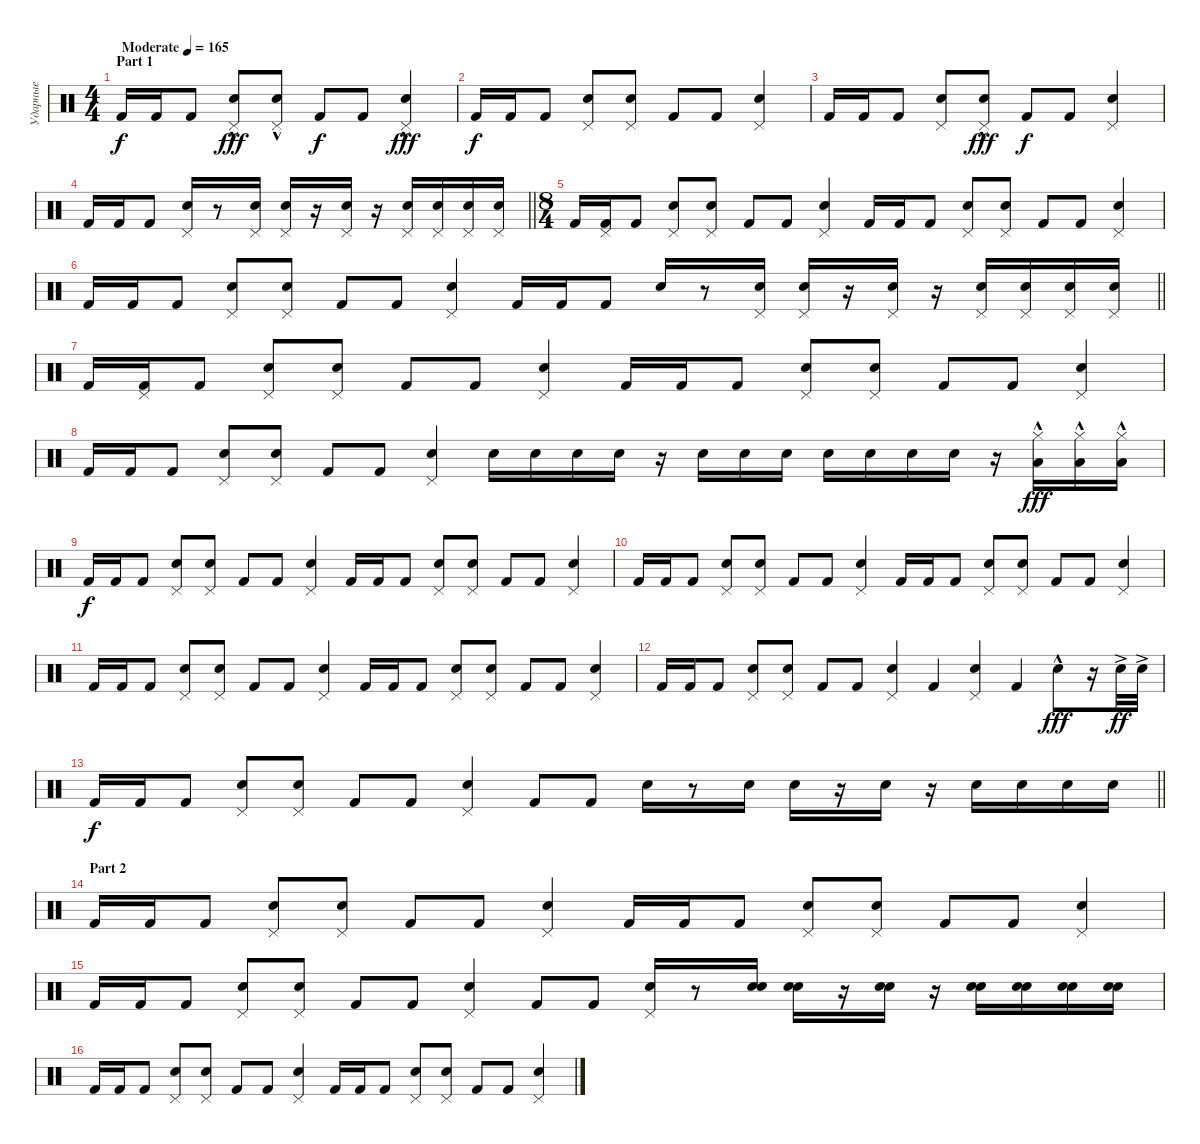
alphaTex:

\track ("Ударные" "Ударные") {instrument percussion}
\staff {score}
\articulation defaults
\ts (4 4)
\section ("" "Part 1")
\tempo (165 "Moderate")
\clef neutral
\ks c "Kick (hit) 2".16{dy f} "Kick (hit) 2".16 "Kick (hit) 2".8
("Snare (hit) 2" "Pedal Hi-Hat (hit)"{hac}).8{dy fff} ("Snare (hit) 2" "Pedal Hi-Hat (hit)"{hac}).8 "Kick (hit) 2".8{dy f} "Kick (hit) 2".8 ("Snare (hit) 2" "Pedal Hi-Hat (hit)"{hac}).4{dy fff} |
"Kick (hit) 2".16{dy f} "Kick (hit) 2".16 "Kick (hit) 2".8 ("Snare (hit) 2" "Pedal Hi-Hat (hit)").8 ("Snare (hit) 2" "Pedal Hi-Hat (hit)").8 "Kick (hit) 2".8 "Kick (hit) 2".8 ("Snare (hit) 2" "Pedal Hi-Hat (hit)").4 |
"Kick (hit) 2".16 "Kick (hit) 2".16 "Kick (hit) 2".8 ("Snare (hit) 2" "Pedal Hi-Hat (hit)").8 ("Snare (hit) 2" "Pedal Hi-Hat (hit)"{hac}).8{dy fff} "Kick (hit) 2".8{dy f} "Kick (hit) 2".8 ("Snare (hit) 2" "Pedal Hi-Hat (hit)").4 |
\barLineRight lightlight "Kick (hit) 2".16 "Kick (hit) 2".16 "Kick (hit) 2".8
("Snare (hit) 2" "Pedal Hi-Hat (hit)").16 r.8 ("Snare (hit) 2" "Pedal Hi-Hat (hit)").16 ("Snare (hit) 2" "Pedal Hi-Hat (hit)").16 r.16 ("Snare (hit) 2" "Pedal Hi-Hat (hit)").16 r.16 ("Snare (hit) 2" "Pedal Hi-Hat (hit)").16 ("Snare (hit) 2" "Pedal Hi-Hat (hit)").16 ("Snare (hit) 2" "Pedal Hi-Hat (hit)").16 ("Snare (hit) 2" "Pedal Hi-Hat (hit)").16 |
\ts (8 4)
"Kick (hit) 2".16 ("Kick (hit) 2" "Pedal Hi-Hat (hit)").16 "Kick (hit) 2".8 ("Snare (hit) 2" "Pedal Hi-Hat (hit)").8 ("Snare (hit) 2" "Pedal Hi-Hat (hit)").8 "Kick (hit) 2".8 "Kick (hit) 2".8 ("Snare (hit) 2" "Pedal Hi-Hat (hit)").4 "Kick (hit) 2".16 "Kick (hit) 2".16 "Kick (hit) 2".8 ("Snare (hit) 2" "Pedal Hi-Hat (hit)").8 ("Snare (hit) 2" "Pedal Hi-Hat (hit)").8 "Kick (hit) 2".8 "Kick (hit) 2".8 ("Snare (hit) 2" "Pedal Hi-Hat (hit)").4 |
\barLineRight lightlight "Kick (hit) 2".16 "Kick (hit) 2".16 "Kick (hit) 2".8
("Snare (hit) 2" "Pedal Hi-Hat (hit)").8 ("Snare (hit) 2" "Pedal Hi-Hat (hit)").8 "Kick (hit) 2".8 "Kick (hit) 2".8 ("Snare (hit) 2" "Pedal Hi-Hat (hit)").4 "Kick (hit) 2".16 "Kick (hit) 2".16 "Kick (hit) 2".8 "Snare (hit) 2".16 r.8 ("Snare (hit) 2" "Pedal Hi-Hat (hit)").16 ("Snare (hit) 2" "Pedal Hi-Hat (hit)").16 r.16 ("Snare (hit) 2" "Pedal Hi-Hat (hit)").16 r.16 ("Snare (hit) 2" "Pedal Hi-Hat (hit)").16 ("Snare (hit) 2" "Pedal Hi-Hat (hit)").16 ("Snare (hit) 2" "Pedal Hi-Hat (hit)").16 ("Snare (hit) 2" "Pedal Hi-Hat (hit)").16 |
"Kick (hit) 2".16 ("Kick (hit) 2" "Pedal Hi-Hat (hit)").16 "Kick (hit) 2".8 ("Snare (hit) 2" "Pedal Hi-Hat (hit)").8 ("Snare (hit) 2" "Pedal Hi-Hat (hit)").8 "Kick (hit) 2".8 "Kick (hit) 2".8 ("Snare (hit) 2" "Pedal Hi-Hat (hit)").4 "Kick (hit) 2".16 "Kick (hit) 2".16 "Kick (hit) 2".8 ("Snare (hit) 2" "Pedal Hi-Hat (hit)").8 ("Snare (hit) 2" "Pedal Hi-Hat (hit)").8 "Kick (hit) 2".8 "Kick (hit) 2".8 ("Snare (hit) 2" "Pedal Hi-Hat (hit)").4 |
"Kick (hit) 2".16 "Kick (hit) 2".16 "Kick (hit) 2".8 ("Snare (hit) 2" "Pedal Hi-Hat (hit)").8 ("Snare (hit) 2" "Pedal Hi-Hat (hit)").8 "Kick (hit) 2".8 "Kick (hit) 2".8 ("Snare (hit) 2" "Pedal Hi-Hat (hit)").4 "Snare (hit) 2".16 "Snare (hit) 2".16 "Snare (hit) 2".16 "Snare (hit) 2".16 r.16 "Snare (hit) 2".16 "Snare (hit) 2".16 "Snare (hit) 2".16 "Snare (hit) 2".16 "Snare (hit) 2".16 "Snare (hit) 2".16 "Snare (hit) 2".16 r.16 ("Low Tom (hit)"{hac} "Hi-Hat (closed)"{hac}).16{dy fff} ("Low Tom (hit)"{hac} "Hi-Hat (closed)"{hac}).16 ("Low Tom (hit)"{hac} "Hi-Hat (closed)"{hac}).16 |
"Kick (hit) 2".16{dy f} "Kick (hit) 2".16 "Kick (hit) 2".8 ("Snare (hit) 2" "Pedal Hi-Hat (hit)").8 ("Snare (hit) 2" "Pedal Hi-Hat (hit)").8 "Kick (hit) 2".8 "Kick (hit) 2".8 ("Snare (hit) 2" "Pedal Hi-Hat (hit)").4 "Kick (hit) 2".16 "Kick (hit) 2".16 "Kick (hit) 2".8 ("Snare (hit) 2" "Pedal Hi-Hat (hit)").8 ("Snare (hit) 2" "Pedal Hi-Hat (hit)").8 "Kick (hit) 2".8 "Kick (hit) 2".8 ("Snare (hit) 2" "Pedal Hi-Hat (hit)").4 |
"Kick (hit) 2".16 "Kick (hit) 2".16 "Kick (hit) 2".8 ("Snare (hit) 2" "Pedal Hi-Hat (hit)").8 ("Snare (hit) 2" "Pedal Hi-Hat (hit)").8 "Kick (hit) 2".8 "Kick (hit) 2".8 ("Snare (hit) 2" "Pedal Hi-Hat (hit)").4 "Kick (hit) 2".16 "Kick (hit) 2".16 "Kick (hit) 2".8 ("Snare (hit) 2" "Pedal Hi-Hat (hit)").8 ("Snare (hit) 2" "Pedal Hi-Hat (hit)").8 "Kick (hit) 2".8 "Kick (hit) 2".8 ("Snare (hit) 2" "Pedal Hi-Hat (hit)").4 |
"Kick (hit) 2".16 "Kick (hit) 2".16 "Kick (hit) 2".8 ("Snare (hit) 2" "Pedal Hi-Hat (hit)").8 ("Snare (hit) 2" "Pedal Hi-Hat (hit)").8 "Kick (hit) 2".8 "Kick (hit) 2".8 ("Snare (hit) 2" "Pedal Hi-Hat (hit)").4 "Kick (hit) 2".16 "Kick (hit) 2".16 "Kick (hit) 2".8 ("Snare (hit) 2" "Pedal Hi-Hat (hit)").8 ("Snare (hit) 2" "Pedal Hi-Hat (hit)").8 "Kick (hit) 2".8 "Kick (hit) 2".8 ("Snare (hit) 2" "Pedal Hi-Hat (hit)").4 |
"Kick (hit) 2".16 "Kick (hit) 2".16 "Kick (hit) 2".8 ("Snare (hit) 2" "Pedal Hi-Hat (hit)").8 ("Snare (hit) 2" "Pedal Hi-Hat (hit)").8 "Kick (hit) 2".8 "Kick (hit) 2".8 ("Snare (hit) 2" "Pedal Hi-Hat (hit)").4 "Kick (hit) 2".4 ("Snare (hit) 2" "Pedal Hi-Hat (hit)").4 "Kick (hit) 2".4 "Snare (hit) 2"{hac}.8{dy fff} r.16 "Snare (hit) 2"{ac}.32{dy ff} "Snare (hit) 2"{ac}.32 |
\barLineRight lightlight "Kick (hit) 2".16{dy f} "Kick (hit) 2".16 "Kick (hit) 2".8
("Snare (hit) 2" "Pedal Hi-Hat (hit)").8 ("Snare (hit) 2" "Pedal Hi-Hat (hit)").8 "Kick (hit) 2".8 "Kick (hit) 2".8 ("Snare (hit) 2" "Pedal Hi-Hat (hit)").4 "Kick (hit) 2".8 "Kick (hit) 2".8 "Snare (hit) 2".16 r.8 "Snare (hit) 2".16 "Snare (hit) 2".16 r.16 "Snare (hit) 2".16 r.16 "Snare (hit) 2".16 "Snare (hit) 2".16 "Snare (hit) 2".16 "Snare (hit) 2".16 |
\section ("" "Part 2")
"Kick (hit) 2".16 "Kick (hit) 2".16 "Kick (hit) 2".8 ("Snare (hit) 2" "Pedal Hi-Hat (hit)").8 ("Snare (hit) 2" "Pedal Hi-Hat (hit)").8 "Kick (hit) 2".8 "Kick (hit) 2".8 ("Snare (hit) 2" "Pedal Hi-Hat (hit)").4 "Kick (hit) 2".16 "Kick (hit) 2".16 "Kick (hit) 2".8 ("Snare (hit) 2" "Pedal Hi-Hat (hit)").8 ("Snare (hit) 2" "Pedal Hi-Hat (hit)").8 "Kick (hit) 2".8 "Kick (hit) 2".8 ("Snare (hit) 2" "Pedal Hi-Hat (hit)").4 |
"Kick (hit) 2".16 "Kick (hit) 2".16 "Kick (hit) 2".8 ("Snare (hit) 2" "Pedal Hi-Hat (hit)").8 ("Snare (hit) 2" "Pedal Hi-Hat (hit)").8 "Kick (hit) 2".8 "Kick (hit) 2".8 ("Snare (hit) 2" "Pedal Hi-Hat (hit)").4 "Kick (hit) 2".8 "Kick (hit) 2".8 ("Snare (hit) 2" "Pedal Hi-Hat (hit)").16 r.8 ("Snare (hit) 2" "Snare (hit) 2").16 ("Snare (hit) 2" "Snare (hit) 2").16 r.16 ("Snare (hit) 2" "Snare (hit) 2").16 r.16 ("Snare (hit) 2" "Snare (hit) 2").16 ("Snare (hit) 2" "Snare (hit) 2").16 ("Snare (hit) 2" "Snare (hit) 2").16 ("Snare (hit) 2" "Snare (hit) 2").16 |
"Kick (hit) 2".16 "Kick (hit) 2".16 "Kick (hit) 2".8 ("Snare (hit) 2" "Pedal Hi-Hat (hit)").8 ("Snare (hit) 2" "Pedal Hi-Hat (hit)").8 "Kick (hit) 2".8 "Kick (hit) 2".8 ("Snare (hit) 2" "Pedal Hi-Hat (hit)").4 "Kick (hit) 2".16 "Kick (hit) 2".16 "Kick (hit) 2".8 ("Snare (hit) 2" "Pedal Hi-Hat (hit)").8 ("Snare (hit) 2" "Pedal Hi-Hat (hit)").8 "Kick (hit) 2".8 "Kick (hit) 2".8 ("Snare (hit) 2" "Pedal Hi-Hat (hit)").4
